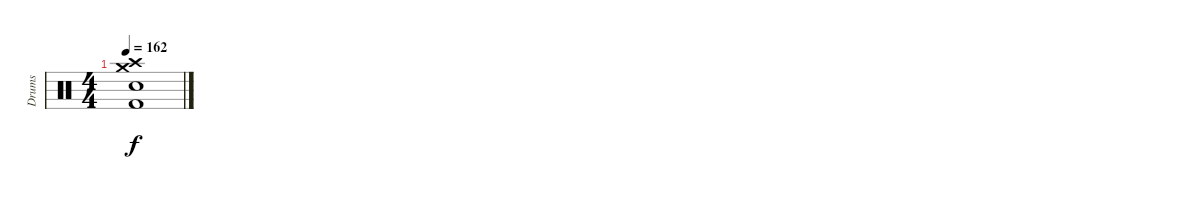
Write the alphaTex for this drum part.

\track ("Drums" "Drums") {instrument percussion}
\staff {score}
\articulation defaults
\ts (4 4)
\tempo 162
\clef neutral
\ks c
("Kick (hit) 2" "Snare (hit) 2" "Crash medium (hit)" "Crash high (hit)").1{dy f}
